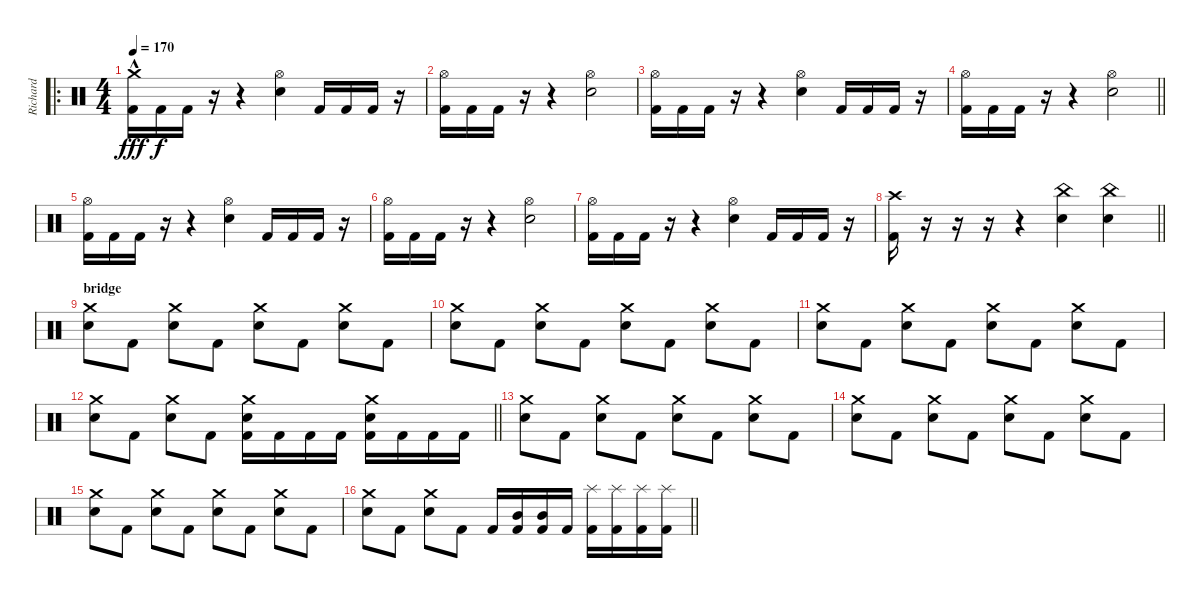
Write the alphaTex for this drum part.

\track ("Richard" "Richard") {instrument percussion}
\staff {score}
\articulation defaults
\ro
\ts (4 4)
\tempo 170
\clef neutral
\ks c
("Crash medium (hit)"{hac} "Kick (hit) 2").16{dy fff} "Kick (hit) 2".16{dy f} "Kick (hit) 2".16 r.16 r.4 ("Hi-Hat (open)" "Electric Snare (hit)").4 "Kick (hit) 2".16 "Kick (hit) 2".16 "Kick (hit) 2".16 r.16 |
("Hi-Hat (open)" "Kick (hit) 2").16 "Kick (hit) 2".16 "Kick (hit) 2".16 r.16 r.4 ("Hi-Hat (open)" "Electric Snare (hit)").2 |
("Hi-Hat (open)" "Kick (hit) 2").16 "Kick (hit) 2".16 "Kick (hit) 2".16 r.16 r.4 ("Hi-Hat (open)" "Electric Snare (hit)").4 "Kick (hit) 2".16 "Kick (hit) 2".16 "Kick (hit) 2".16 r.16 |
\barLineRight lightlight
("Hi-Hat (open)" "Kick (hit) 2").16 "Kick (hit) 2".16 "Kick (hit) 2".16 r.16 r.4 ("Hi-Hat (open)" "Electric Snare (hit)").2 |
("Hi-Hat (open)" "Kick (hit) 2").16 "Kick (hit) 2".16 "Kick (hit) 2".16 r.16 r.4 ("Hi-Hat (open)" "Electric Snare (hit)").4 "Kick (hit) 2".16 "Kick (hit) 2".16 "Kick (hit) 2".16 r.16 |
("Hi-Hat (open)" "Kick (hit) 2").16 "Kick (hit) 2".16 "Kick (hit) 2".16 r.16 r.4 ("Hi-Hat (open)" "Electric Snare (hit)").2 |
("Hi-Hat (open)" "Kick (hit) 2").16 "Kick (hit) 2".16 "Kick (hit) 2".16 r.16 r.4 ("Hi-Hat (open)" "Electric Snare (hit)").4 "Kick (hit) 2".16 "Kick (hit) 2".16 "Kick (hit) 2".16 r.16 |
\barLineRight lightlight
("Crash high (hit)" "Kick (hit) 2").16 r.16 r.16 r.16 r.4 ("China (hit)" "Electric Snare (hit)").4 ("China (hit)" "Electric Snare (hit)").4 |
\section ("" "bridge")
("Crash medium (hit)" "Electric Snare (hit)").8 "Kick (hit) 2".8 ("Crash medium (hit)" "Electric Snare (hit)").8 "Kick (hit) 2".8 ("Crash medium (hit)" "Electric Snare (hit)").8 "Kick (hit) 2".8 ("Crash medium (hit)" "Electric Snare (hit)").8 "Kick (hit) 2".8 |
("Crash medium (hit)" "Electric Snare (hit)").8 "Kick (hit) 2".8 ("Crash medium (hit)" "Electric Snare (hit)").8 "Kick (hit) 2".8 ("Crash medium (hit)" "Electric Snare (hit)").8 "Kick (hit) 2".8 ("Crash medium (hit)" "Electric Snare (hit)").8 "Kick (hit) 2".8 |
("Crash medium (hit)" "Electric Snare (hit)").8 "Kick (hit) 2".8 ("Crash medium (hit)" "Electric Snare (hit)").8 "Kick (hit) 2".8 ("Crash medium (hit)" "Electric Snare (hit)").8 "Kick (hit) 2".8 ("Crash medium (hit)" "Electric Snare (hit)").8 "Kick (hit) 2".8 |
\barLineRight lightlight
("Crash medium (hit)" "Electric Snare (hit)").8 "Kick (hit) 2".8 ("Crash medium (hit)" "Electric Snare (hit)").8 "Kick (hit) 2".8 ("Crash medium (hit)" "Electric Snare (hit)" "Kick (hit) 2").16 "Kick (hit) 2".16 "Kick (hit) 2".16 "Kick (hit) 2".16 ("Crash medium (hit)" "Electric Snare (hit)" "Kick (hit) 2").16 "Kick (hit) 2".16 "Kick (hit) 2".16 "Kick (hit) 2".16 |
("Crash medium (hit)" "Electric Snare (hit)").8 "Kick (hit) 2".8 ("Crash medium (hit)" "Electric Snare (hit)").8 "Kick (hit) 2".8 ("Crash medium (hit)" "Electric Snare (hit)").8 "Kick (hit) 2".8 ("Crash medium (hit)" "Electric Snare (hit)").8 "Kick (hit) 2".8 |
("Crash medium (hit)" "Electric Snare (hit)").8 "Kick (hit) 2".8 ("Crash medium (hit)" "Electric Snare (hit)").8 "Kick (hit) 2".8 ("Crash medium (hit)" "Electric Snare (hit)").8 "Kick (hit) 2".8 ("Crash medium (hit)" "Electric Snare (hit)").8 "Kick (hit) 2".8 |
("Crash medium (hit)" "Electric Snare (hit)").8 "Kick (hit) 2".8 ("Crash medium (hit)" "Electric Snare (hit)").8 "Kick (hit) 2".8 ("Crash medium (hit)" "Electric Snare (hit)").8 "Kick (hit) 2".8 ("Crash medium (hit)" "Electric Snare (hit)").8 "Kick (hit) 2".8 |
\barLineRight lightlight
("Crash medium (hit)" "Electric Snare (hit)").8 "Kick (hit) 2".8 ("Crash medium (hit)" "Electric Snare (hit)").8 "Kick (hit) 2".8 "Kick (hit) 2".16 ("Mid Tom (hit)" "Kick (hit) 2").16 ("Mid Tom (hit)" "Kick (hit) 2").16 "Kick (hit) 2".16 ("Splash (hit)" "Kick (hit) 2").16 ("Splash (hit)" "Kick (hit) 2").16 ("Splash (hit)" "Kick (hit) 2").16 ("Splash (hit)" "Kick (hit) 2").16
